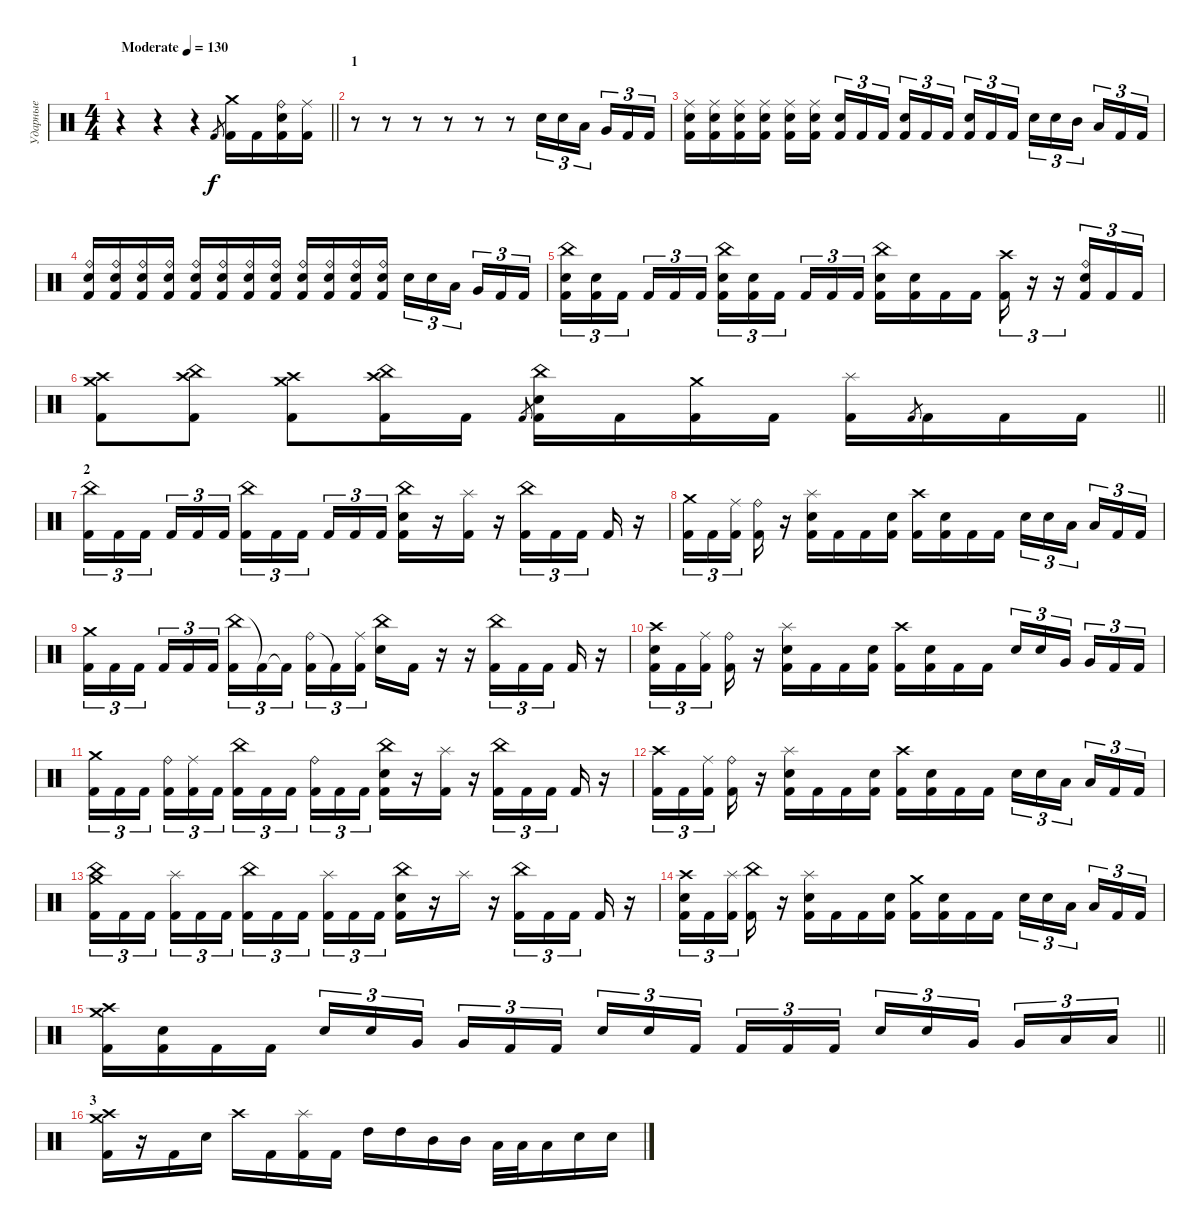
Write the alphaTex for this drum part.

\track ("Ударные" "Ударные") {instrument percussion}
\staff {score}
\articulation defaults
\ts (4 4)
\tempo (130 "Moderate")
\clef neutral
\barLineRight lightlight
\ks c
r.4{dy f} r.4 r.4 "Kick (hit) 2".8{gr} ("Crash medium (hit)" "Kick (hit) 2").16 "Kick (hit) 2".16 ("Ride (bell)" "Electric Snare (hit)" "Kick (hit) 2").16 ("Ride (middle)" "Kick (hit) 2").16 |
\section ("" "1")
r.8 r.8 r.8 r.8 r.8 r.8 "Electric Snare (hit)".16{tu (3 2)} "Electric Snare (hit)".16{tu (3 2)} "Low Tom (hit)".16{tu (3 2) beam splitsecondary} "Very Low Tom (hit)".16{tu (3 2)} "Kick (hit) 2".16{tu (3 2)} "Kick (hit) 2".16{tu (3 2)} |
("Ride (middle)" "Electric Snare (hit)" "Kick (hit) 2").16 ("Ride (middle)" "Electric Snare (hit)" "Kick (hit) 2").16 ("Ride (middle)" "Electric Snare (hit)" "Kick (hit) 2").16 ("Ride (middle)" "Electric Snare (hit)" "Kick (hit) 2").16 ("Ride (middle)" "Electric Snare (hit)" "Kick (hit) 2").16 ("Ride (middle)" "Electric Snare (hit)" "Kick (hit) 2").16{beam splitsecondary} ("Electric Snare (hit)" "Kick (hit) 2").16{tu (3 2)} "Kick (hit) 2".16{tu (3 2)} "Kick (hit) 2".16{tu (3 2)} ("Electric Snare (hit)" "Kick (hit) 2").16{tu (3 2)} "Kick (hit) 2".16{tu (3 2)} "Kick (hit) 2".16{tu (3 2) beam splitsecondary} ("Electric Snare (hit)" "Kick (hit) 2").16{tu (3 2)} "Kick (hit) 2".16{tu (3 2)} "Kick (hit) 2".16{tu (3 2)} "Electric Snare (hit)".16{tu (3 2)} "Electric Snare (hit)".16{tu (3 2)} "Mid Tom (hit)".16{tu (3 2) beam splitsecondary} "Low Tom (hit)".16{tu (3 2)} "Kick (hit) 2".16{tu (3 2)} "Kick (hit) 2".16{tu (3 2)} |
("Ride (bell)" "Electric Snare (hit)" "Kick (hit) 2").16 ("Ride (bell)" "Electric Snare (hit)" "Kick (hit) 2").16 ("Ride (bell)" "Electric Snare (hit)" "Kick (hit) 2").16 ("Ride (bell)" "Electric Snare (hit)" "Kick (hit) 2").16 ("Ride (bell)" "Electric Snare (hit)" "Kick (hit) 2").16 ("Ride (bell)" "Electric Snare (hit)" "Kick (hit) 2").16 ("Ride (bell)" "Electric Snare (hit)" "Kick (hit) 2").16 ("Ride (bell)" "Electric Snare (hit)" "Kick (hit) 2").16 ("Ride (bell)" "Electric Snare (hit)" "Kick (hit) 2").16 ("Ride (bell)" "Electric Snare (hit)" "Kick (hit) 2").16 ("Ride (bell)" "Electric Snare (hit)" "Kick (hit) 2").16 ("Ride (bell)" "Electric Snare (hit)" "Kick (hit) 2").16 "Electric Snare (hit)".16{tu (3 2)} "Electric Snare (hit)".16{tu (3 2)} "Low Tom (hit)".16{tu (3 2) beam splitsecondary} "Very Low Tom (hit)".16{tu (3 2)} "Kick (hit) 2".16{tu (3 2)} "Kick (hit) 2".16{tu (3 2)} |
("China (hit)" "Electric Snare (hit)" "Kick (hit) 2").16{tu (3 2)} ("Electric Snare (hit)" "Kick (hit) 2").16{tu (3 2)} "Kick (hit) 2".16{tu (3 2) beam splitsecondary} "Kick (hit) 2".16{tu (3 2)} "Kick (hit) 2".16{tu (3 2)} "Kick (hit) 2".16{tu (3 2)} ("China (hit)" "Electric Snare (hit)" "Kick (hit) 2").16{tu (3 2)} ("Electric Snare (hit)" "Kick (hit) 2").16{tu (3 2)} "Kick (hit) 2".16{tu (3 2) beam splitsecondary} "Kick (hit) 2".16{tu (3 2)} "Kick (hit) 2".16{tu (3 2)} "Kick (hit) 2".16{tu (3 2)} ("China (hit)" "Electric Snare (hit)" "Kick (hit) 2").16 ("Electric Snare (hit)" "Kick (hit) 2").16 "Kick (hit) 2".16 "Kick (hit) 2".16 ("Crash high (hit)" "Kick (hit) 2").16{tu (3 2)} r.16{tu (3 2)} r.16{tu (3 2)} ("Ride (bell)" "Electric Snare (hit)" "Kick (hit) 2").16{tu (3 2)} "Kick (hit) 2".16{tu (3 2)} "Kick (hit) 2".16{tu (3 2)} |
\barLineRight lightlight
("Crash medium (hit)" "Crash high (hit)" "Kick (hit) 2").8 ("Crash high (hit)" "China (hit)" "Kick (hit) 2").8 ("Crash medium (hit)" "Crash high (hit)" "Kick (hit) 2").8 ("Crash high (hit)" "China (hit)" "Kick (hit) 2").16 "Kick (hit) 2".16 "Kick (hit) 2".8{gr} ("China (hit)" "Electric Snare (hit)" "Kick (hit) 2").16 "Kick (hit) 2".16 ("Crash medium (hit)" "Kick (hit) 2").16 "Kick (hit) 2".16 ("Splash (hit)" "Kick (hit) 2").16 "Kick (hit) 2".8{gr} "Kick (hit) 2".16 "Kick (hit) 2".16 "Kick (hit) 2".16 |
\section ("" "2")
("China (hit)" "Kick (hit) 2").16{tu (3 2)} "Kick (hit) 2".16{tu (3 2)} "Kick (hit) 2".16{tu (3 2) beam splitsecondary} "Kick (hit) 2".16{tu (3 2)} "Kick (hit) 2".16{tu (3 2)} "Kick (hit) 2".16{tu (3 2)} ("China (hit)" "Kick (hit) 2").16{tu (3 2)} "Kick (hit) 2".16{tu (3 2)} "Kick (hit) 2".16{tu (3 2) beam splitsecondary} "Kick (hit) 2".16{tu (3 2)} "Kick (hit) 2".16{tu (3 2)} "Kick (hit) 2".16{tu (3 2)} ("China (hit)" "Electric Snare (hit)" "Kick (hit) 2").16 r.16 ("Splash (hit)" "Kick (hit) 2").16 r.16 ("China (hit)" "Kick (hit) 2").16{tu (3 2)} "Kick (hit) 2".16{tu (3 2)} "Kick (hit) 2".16{tu (3 2) beam splitsecondary} "Kick (hit) 2".16 r.16 |
("Crash medium (hit)" "Kick (hit) 2").16{tu (3 2)} "Kick (hit) 2".16{tu (3 2)} ("Ride (middle)" "Kick (hit) 2").16{tu (3 2) beam splitsecondary} ("Ride (bell)" "Kick (hit) 2").16 r.16 ("Splash (hit)" "Electric Snare (hit)" "Kick (hit) 2").16 "Kick (hit) 2".16 "Kick (hit) 2".16 ("Electric Snare (hit)" "Kick (hit) 2").16 ("Crash high (hit)" "Kick (hit) 2").16 ("Electric Snare (hit)" "Kick (hit) 2").16 "Kick (hit) 2".16 "Kick (hit) 2".16 "Electric Snare (hit)".16{tu (3 2)} "Electric Snare (hit)".16{tu (3 2)} "Low Tom (hit)".16{tu (3 2) beam splitsecondary} "Low Tom (hit)".16{tu (3 2)} "Kick (hit) 2".16{tu (3 2)} "Kick (hit) 2".16{tu (3 2)} |
("Crash medium (hit)" "Kick (hit) 2").16{tu (3 2)} "Kick (hit) 2".16{tu (3 2)} "Kick (hit) 2".16{tu (3 2) beam splitsecondary} "Kick (hit) 2".16{tu (3 2)} "Kick (hit) 2".16{tu (3 2)} "Kick (hit) 2".16{tu (3 2)} ("China (hit)" "Kick (hit) 2").16{tu (3 2)} "Kick (hit) 2"{t}.16{tu (3 2)} "Kick (hit) 2"{t}.16{tu (3 2) beam splitsecondary} ("Ride (bell)" "Kick (hit) 2").16{tu (3 2)} "Kick (hit) 2"{t}.16{tu (3 2)} ("Ride (middle)" "Kick (hit) 2").16{tu (3 2)} ("China (hit)" "Electric Snare (hit)").16 "Kick (hit) 2".16 r.16 r.16 ("China (hit)" "Kick (hit) 2").16{tu (3 2)} "Kick (hit) 2".16{tu (3 2)} "Kick (hit) 2".16{tu (3 2) beam splitsecondary} "Kick (hit) 2".16 r.16 |
("Crash high (hit)" "Electric Snare (hit)" "Kick (hit) 2").16{tu (3 2)} "Kick (hit) 2".16{tu (3 2)} ("Ride (middle)" "Kick (hit) 2").16{tu (3 2) beam splitsecondary} ("Ride (bell)" "Kick (hit) 2").16 r.16 ("Splash (hit)" "Electric Snare (hit)" "Kick (hit) 2").16 "Kick (hit) 2".16 "Kick (hit) 2".16 ("Electric Snare (hit)" "Kick (hit) 2").16 ("Crash high (hit)" "Kick (hit) 2").16 ("Electric Snare (hit)" "Kick (hit) 2").16 "Kick (hit) 2".16 "Kick (hit) 2".16 "Electric Snare (hit)".16{tu (3 2)} "Electric Snare (hit)".16{tu (3 2)} "Very Low Tom (hit)".16{tu (3 2) beam splitsecondary} "Very Low Tom (hit)".16{tu (3 2)} "Kick (hit) 2".16{tu (3 2)} "Kick (hit) 2".16{tu (3 2)} |
("Crash medium (hit)" "Kick (hit) 2").16{tu (3 2)} "Kick (hit) 2".16{tu (3 2)} "Kick (hit) 2".16{tu (3 2) beam splitsecondary} ("Ride (bell)" "Kick (hit) 2").16{tu (3 2)} ("Ride (middle)" "Kick (hit) 2").16{tu (3 2)} "Kick (hit) 2".16{tu (3 2)} ("China (hit)" "Kick (hit) 2").16{tu (3 2)} "Kick (hit) 2".16{tu (3 2)} "Kick (hit) 2".16{tu (3 2) beam splitsecondary} ("Ride (bell)" "Kick (hit) 2").16{tu (3 2)} "Kick (hit) 2".16{tu (3 2)} "Kick (hit) 2".16{tu (3 2)} ("China (hit)" "Electric Snare (hit)" "Kick (hit) 2").16 r.16 ("Splash (hit)" "Kick (hit) 2").16 r.16 ("China (hit)" "Kick (hit) 2").16{tu (3 2)} "Kick (hit) 2".16{tu (3 2)} "Kick (hit) 2".16{tu (3 2) beam splitsecondary} "Kick (hit) 2".16 r.16 |
("Crash high (hit)" "Kick (hit) 2").16{tu (3 2)} "Kick (hit) 2".16{tu (3 2)} ("Ride (middle)" "Kick (hit) 2").16{tu (3 2) beam splitsecondary} ("Ride (bell)" "Kick (hit) 2").16 r.16 ("Splash (hit)" "Electric Snare (hit)" "Kick (hit) 2").16 "Kick (hit) 2".16 "Kick (hit) 2".16 ("Electric Snare (hit)" "Kick (hit) 2").16 ("Crash high (hit)" "Kick (hit) 2").16 ("Electric Snare (hit)" "Kick (hit) 2").16 "Kick (hit) 2".16 "Kick (hit) 2".16 "Electric Snare (hit)".16{tu (3 2)} "Electric Snare (hit)".16{tu (3 2)} "Low Tom (hit)".16{tu (3 2) beam splitsecondary} "Low Tom (hit)".16{tu (3 2)} "Kick (hit) 2".16{tu (3 2)} "Kick (hit) 2".16{tu (3 2)} |
("China (hit)" "Crash medium (hit)" "Kick (hit) 2").16{tu (3 2)} "Kick (hit) 2".16{tu (3 2)} "Kick (hit) 2".16{tu (3 2) beam splitsecondary} ("Splash (hit)" "Kick (hit) 2").16{tu (3 2)} "Kick (hit) 2".16{tu (3 2)} "Kick (hit) 2".16{tu (3 2)} ("China (hit)" "Kick (hit) 2").16{tu (3 2)} "Kick (hit) 2".16{tu (3 2)} "Kick (hit) 2".16{tu (3 2) beam splitsecondary} ("Splash (hit)" "Kick (hit) 2").16{tu (3 2)} "Kick (hit) 2".16{tu (3 2)} "Kick (hit) 2".16{tu (3 2)} ("China (hit)" "Electric Snare (hit)" "Kick (hit) 2").16 r.16 "Splash (hit)".16 r.16 ("China (hit)" "Kick (hit) 2").16{tu (3 2)} "Kick (hit) 2".16{tu (3 2)} "Kick (hit) 2".16{tu (3 2) beam splitsecondary} "Kick (hit) 2".16 r.16 |
("Crash high (hit)" "Electric Snare (hit)" "Kick (hit) 2").16{tu (3 2)} "Kick (hit) 2".16{tu (3 2)} ("Splash (hit)" "Kick (hit) 2").16{tu (3 2) beam splitsecondary} ("China (hit)" "Kick (hit) 2").16 r.16 ("Splash (hit)" "Electric Snare (hit)" "Kick (hit) 2").16 "Kick (hit) 2".16 "Kick (hit) 2".16 ("Electric Snare (hit)" "Kick (hit) 2").16 ("Crash medium (hit)" "Kick (hit) 2").16 ("Electric Snare (hit)" "Kick (hit) 2").16 "Kick (hit) 2".16 "Kick (hit) 2".16 "Electric Snare (hit)".16{tu (3 2)} "Electric Snare (hit)".16{tu (3 2)} "Low Tom (hit)".16{tu (3 2) beam splitsecondary} "Low Tom (hit)".16{tu (3 2)} "Kick (hit) 2".16{tu (3 2)} "Kick (hit) 2".16{tu (3 2)} |
\barLineRight lightlight
("Crash medium (hit)" "Crash high (hit)" "Kick (hit) 2").16 ("Electric Snare (hit)" "Kick (hit) 2").16 "Kick (hit) 2".16 "Kick (hit) 2".16 "Electric Snare (hit)".16{tu (3 2)} "Electric Snare (hit)".16{tu (3 2)} "Very Low Tom (hit)".16{tu (3 2) beam splitsecondary} "Very Low Tom (hit)".16{tu (3 2)} "Kick (hit) 2".16{tu (3 2)} "Kick (hit) 2".16{tu (3 2)} "Electric Snare (hit)".16{tu (3 2)} "Electric Snare (hit)".16{tu (3 2)} "Kick (hit) 2".16{tu (3 2) beam splitsecondary} "Kick (hit) 2".16{tu (3 2)} "Kick (hit) 2".16{tu (3 2)} "Kick (hit) 2".16{tu (3 2)} "Electric Snare (hit)".16{tu (3 2)} "Electric Snare (hit)".16{tu (3 2)} "Very Low Tom (hit)".16{tu (3 2) beam splitsecondary} "Very Low Tom (hit)".16{tu (3 2)} "Low Tom (hit)".16{tu (3 2)} "Low Tom (hit)".16{tu (3 2)} |
\section ("" "3")
("Crash high (hit)" "Crash medium (hit)" "Kick (hit) 2").16 r.16 "Kick (hit) 2".16 "Electric Snare (hit)".16 "Crash high (hit)".16 "Kick (hit) 2".16 ("Splash (hit)" "Kick (hit) 2").16 "Kick (hit) 2".16 "High Tom (hit)".16 "High Tom (hit)".16 "Mid Tom (hit)".16 "Mid Tom (hit)".16 "Low Tom (hit)".32 "Low Tom (hit)".32 "Low Tom (hit)".16 "Electric Snare (hit)".16 "Electric Snare (hit)".16
